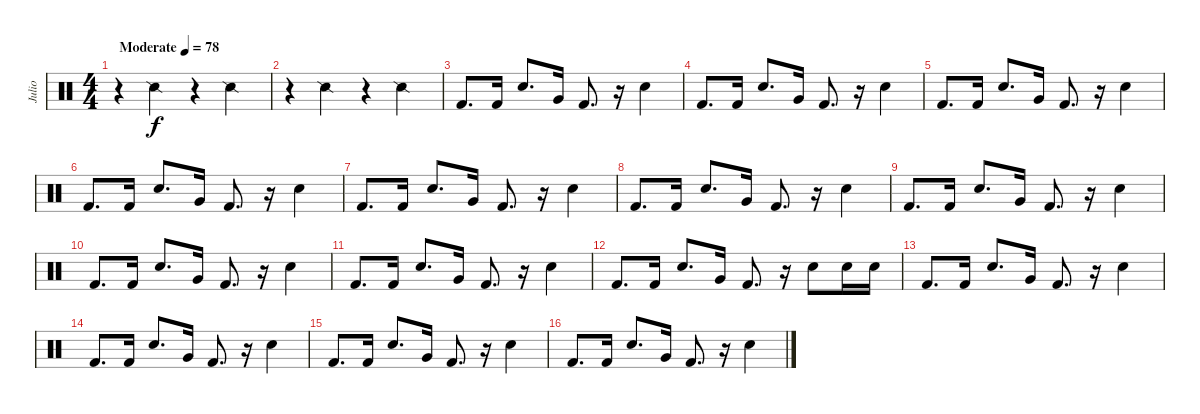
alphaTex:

\track ("Julio" "Julio") {instrument percussion}
\staff {score}
\articulation defaults
\ts (4 4)
\tempo (78 "Moderate")
\clef neutral
\ks c
r.4{dy f} "Snare (side stick) 2".4 r.4 "Snare (side stick) 2".4 |
r.4 "Snare (side stick) 2".4 r.4 "Snare (side stick) 2".4 |
"Kick (hit) 2".8{d} "Kick (hit) 2".16 "Electric Snare (hit)".8{d} "Very Low Tom (hit)".16 "Kick (hit) 2".8{d} r.16 "Electric Snare (hit)".4 |
"Kick (hit) 2".8{d} "Kick (hit) 2".16 "Electric Snare (hit)".8{d} "Very Low Tom (hit)".16 "Kick (hit) 2".8{d} r.16 "Electric Snare (hit)".4 |
"Kick (hit) 2".8{d} "Kick (hit) 2".16 "Electric Snare (hit)".8{d} "Very Low Tom (hit)".16 "Kick (hit) 2".8{d} r.16 "Electric Snare (hit)".4 |
"Kick (hit) 2".8{d} "Kick (hit) 2".16 "Electric Snare (hit)".8{d} "Very Low Tom (hit)".16 "Kick (hit) 2".8{d} r.16 "Electric Snare (hit)".4 |
"Kick (hit) 2".8{d} "Kick (hit) 2".16 "Electric Snare (hit)".8{d} "Very Low Tom (hit)".16 "Kick (hit) 2".8{d} r.16 "Electric Snare (hit)".4 |
"Kick (hit) 2".8{d} "Kick (hit) 2".16 "Electric Snare (hit)".8{d} "Very Low Tom (hit)".16 "Kick (hit) 2".8{d} r.16 "Electric Snare (hit)".4 |
"Kick (hit) 2".8{d} "Kick (hit) 2".16 "Electric Snare (hit)".8{d} "Very Low Tom (hit)".16 "Kick (hit) 2".8{d} r.16 "Electric Snare (hit)".4 |
"Kick (hit) 2".8{d} "Kick (hit) 2".16 "Electric Snare (hit)".8{d} "Very Low Tom (hit)".16 "Kick (hit) 2".8{d} r.16 "Electric Snare (hit)".4 |
"Kick (hit) 2".8{d} "Kick (hit) 2".16 "Electric Snare (hit)".8{d} "Very Low Tom (hit)".16 "Kick (hit) 2".8{d} r.16 "Electric Snare (hit)".4 |
"Kick (hit) 2".8{d} "Kick (hit) 2".16 "Electric Snare (hit)".8{d} "Very Low Tom (hit)".16 "Kick (hit) 2".8{d} r.16 "Electric Snare (hit)".8 "Snare (hit) 2".16 "Electric Snare (hit)".16 |
"Kick (hit) 2".8{d} "Kick (hit) 2".16 "Electric Snare (hit)".8{d} "Very Low Tom (hit)".16 "Kick (hit) 2".8{d} r.16 "Electric Snare (hit)".4 |
"Kick (hit) 2".8{d} "Kick (hit) 2".16 "Electric Snare (hit)".8{d} "Very Low Tom (hit)".16 "Kick (hit) 2".8{d} r.16 "Electric Snare (hit)".4 |
"Kick (hit) 2".8{d} "Kick (hit) 2".16 "Electric Snare (hit)".8{d} "Very Low Tom (hit)".16 "Kick (hit) 2".8{d} r.16 "Electric Snare (hit)".4 |
"Kick (hit) 2".8{d} "Kick (hit) 2".16 "Electric Snare (hit)".8{d} "Very Low Tom (hit)".16 "Kick (hit) 2".8{d} r.16 "Electric Snare (hit)".4
